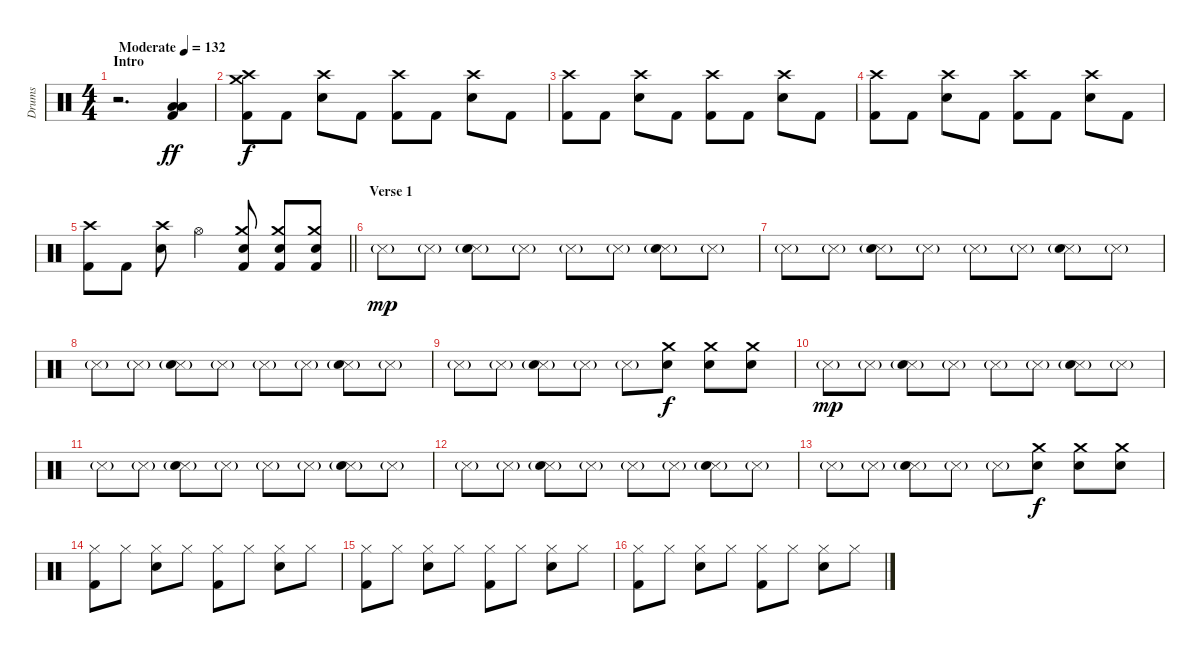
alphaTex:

\track ("Drums" "Drums") {instrument percussion}
\staff {score}
\articulation defaults
\ts (4 4)
\section ("" "Intro")
\tempo (132 "Moderate")
\clef neutral
\ks c
r.2{d dy ff} ("Low Floor Tom (hit)" "Low Floor Tom (hit)" "Kick (hit) 2").4 |
("Crash medium (hit)" "Crash high (hit)" "Kick (hit) 2").8{dy f} "Kick (hit) 2".8 ("Crash high (hit)" "Electric Snare (hit)").8 "Kick (hit) 2".8 ("Crash high (hit)" "Kick (hit) 2").8 "Kick (hit) 2".8 ("Crash high (hit)" "Electric Snare (hit)").8 "Kick (hit) 2".8 |
("Crash high (hit)" "Kick (hit) 2").8 "Kick (hit) 2".8 ("Crash high (hit)" "Electric Snare (hit)").8 "Kick (hit) 2".8 ("Crash high (hit)" "Kick (hit) 2").8 "Kick (hit) 2".8 ("Crash high (hit)" "Electric Snare (hit)").8 "Kick (hit) 2".8 |
("Crash high (hit)" "Kick (hit) 2").8 "Kick (hit) 2".8 ("Crash high (hit)" "Electric Snare (hit)").8 "Kick (hit) 2".8 ("Crash high (hit)" "Kick (hit) 2").8 "Kick (hit) 2".8 ("Crash high (hit)" "Electric Snare (hit)").8 "Kick (hit) 2".8 |
\barLineRight lightlight
("Crash high (hit)" "Kick (hit) 2").8 "Kick (hit) 2".8 ("Crash high (hit)" "Electric Snare (hit)").8 "Hi-Hat (open)".4 ("Crash medium (hit)" "Electric Snare (hit)" "Kick (hit) 2").8 ("Crash medium (hit)" "Electric Snare (hit)" "Kick (hit) 2").8 ("Crash medium (hit)" "Electric Snare (hit)" "Kick (hit) 2").8 |
\section ("" "Verse 1")
"Snare (side stick) 3"{g}.8{dy mp} "Snare (side stick) 3"{g}.8 ("Snare (side stick) 3"{g} "Electric Snare (hit)").8 "Snare (side stick) 3"{g}.8 "Snare (side stick) 3"{g}.8 "Snare (side stick) 3"{g}.8 ("Snare (side stick) 3"{g} "Electric Snare (hit)").8 "Snare (side stick) 3"{g}.8 |
"Snare (side stick) 3"{g}.8 "Snare (side stick) 3"{g}.8 ("Snare (side stick) 3"{g} "Electric Snare (hit)").8 "Snare (side stick) 3"{g}.8 "Snare (side stick) 3"{g}.8 "Snare (side stick) 3"{g}.8 ("Snare (side stick) 3"{g} "Electric Snare (hit)").8 "Snare (side stick) 3"{g}.8 |
"Snare (side stick) 3"{g}.8 "Snare (side stick) 3"{g}.8 ("Snare (side stick) 3"{g} "Electric Snare (hit)").8 "Snare (side stick) 3"{g}.8 "Snare (side stick) 3"{g}.8 "Snare (side stick) 3"{g}.8 ("Snare (side stick) 3"{g} "Electric Snare (hit)").8 "Snare (side stick) 3"{g}.8 |
"Snare (side stick) 3"{g}.8 "Snare (side stick) 3"{g}.8 ("Snare (side stick) 3"{g} "Electric Snare (hit)").8 "Snare (side stick) 3"{g}.8 "Snare (side stick) 3"{g}.8 ("Crash medium (hit)" "Electric Snare (hit)").8{dy f} ("Crash medium (hit)" "Electric Snare (hit)").8 ("Crash medium (hit)" "Electric Snare (hit)").8 |
"Snare (side stick) 3"{g}.8{dy mp} "Snare (side stick) 3"{g}.8 ("Snare (side stick) 3"{g} "Electric Snare (hit)").8 "Snare (side stick) 3"{g}.8 "Snare (side stick) 3"{g}.8 "Snare (side stick) 3"{g}.8 ("Snare (side stick) 3"{g} "Electric Snare (hit)").8 "Snare (side stick) 3"{g}.8 |
"Snare (side stick) 3"{g}.8 "Snare (side stick) 3"{g}.8 ("Snare (side stick) 3"{g} "Electric Snare (hit)").8 "Snare (side stick) 3"{g}.8 "Snare (side stick) 3"{g}.8 "Snare (side stick) 3"{g}.8 ("Snare (side stick) 3"{g} "Electric Snare (hit)").8 "Snare (side stick) 3"{g}.8 |
"Snare (side stick) 3"{g}.8 "Snare (side stick) 3"{g}.8 ("Snare (side stick) 3"{g} "Electric Snare (hit)").8 "Snare (side stick) 3"{g}.8 "Snare (side stick) 3"{g}.8 "Snare (side stick) 3"{g}.8 ("Snare (side stick) 3"{g} "Electric Snare (hit)").8 "Snare (side stick) 3"{g}.8 |
"Snare (side stick) 3"{g}.8 "Snare (side stick) 3"{g}.8 ("Snare (side stick) 3"{g} "Electric Snare (hit)").8 "Snare (side stick) 3"{g}.8 "Snare (side stick) 3"{g}.8 ("Crash medium (hit)" "Electric Snare (hit)").8{dy f} ("Crash medium (hit)" "Electric Snare (hit)").8 ("Crash medium (hit)" "Electric Snare (hit)").8 |
("Hi-Hat (closed)" "Kick (hit) 2").8 "Hi-Hat (closed)".8 ("Hi-Hat (closed)" "Electric Snare (hit)").8 "Hi-Hat (closed)".8 ("Hi-Hat (closed)" "Kick (hit) 2").8 "Hi-Hat (closed)".8 ("Hi-Hat (closed)" "Electric Snare (hit)").8 "Hi-Hat (closed)".8 |
("Hi-Hat (closed)" "Kick (hit) 2").8 "Hi-Hat (closed)".8 ("Hi-Hat (closed)" "Electric Snare (hit)").8 "Hi-Hat (closed)".8 ("Hi-Hat (closed)" "Kick (hit) 2").8 "Hi-Hat (closed)".8 ("Hi-Hat (closed)" "Electric Snare (hit)").8 "Hi-Hat (closed)".8 |
("Hi-Hat (closed)" "Kick (hit) 2").8 "Hi-Hat (closed)".8 ("Hi-Hat (closed)" "Electric Snare (hit)").8 "Hi-Hat (closed)".8 ("Hi-Hat (closed)" "Kick (hit) 2").8 "Hi-Hat (closed)".8 ("Hi-Hat (closed)" "Electric Snare (hit)").8 "Hi-Hat (closed)".8
